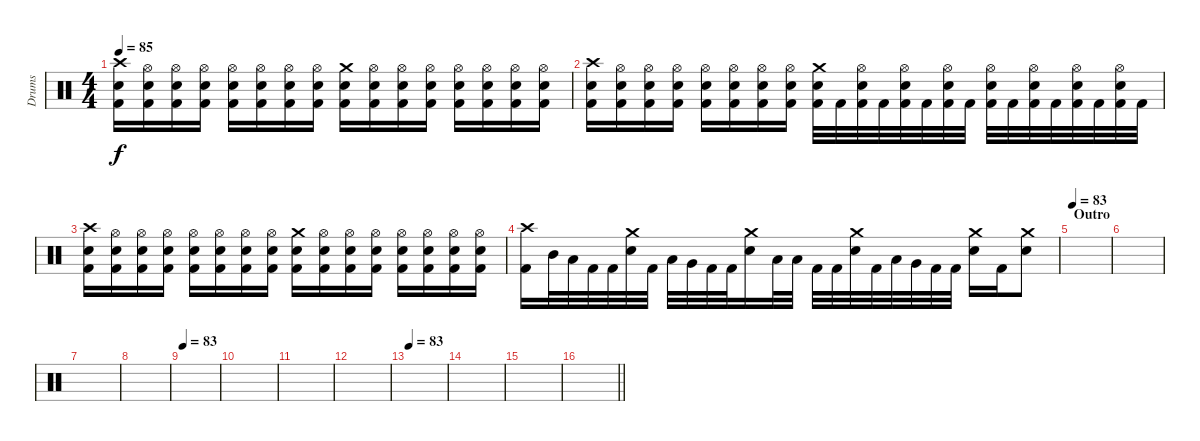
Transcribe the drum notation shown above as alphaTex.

\track ("Drums" "Drums") {instrument percussion}
\staff {score}
\articulation defaults
\ts (4 4)
\tempo 85
\clef neutral
\ks c
("Crash high (hit)" "Electric Snare (hit)" "Kick (hit) 2").16{dy f} ("Hi-Hat (open)" "Electric Snare (hit)" "Kick (hit) 2").16 ("Hi-Hat (open)" "Electric Snare (hit)" "Kick (hit) 2").16 ("Hi-Hat (open)" "Electric Snare (hit)" "Kick (hit) 2").16 ("Hi-Hat (open)" "Electric Snare (hit)" "Kick (hit) 2").16 ("Hi-Hat (open)" "Electric Snare (hit)" "Kick (hit) 2").16 ("Hi-Hat (open)" "Electric Snare (hit)" "Kick (hit) 2").16 ("Hi-Hat (open)" "Electric Snare (hit)" "Kick (hit) 2").16 ("Crash medium (hit)" "Electric Snare (hit)" "Kick (hit) 2").16 ("Hi-Hat (open)" "Electric Snare (hit)" "Kick (hit) 2").16 ("Hi-Hat (open)" "Electric Snare (hit)" "Kick (hit) 2").16 ("Hi-Hat (open)" "Electric Snare (hit)" "Kick (hit) 2").16 ("Hi-Hat (open)" "Electric Snare (hit)" "Kick (hit) 2").16 ("Hi-Hat (open)" "Electric Snare (hit)" "Kick (hit) 2").16 ("Hi-Hat (open)" "Electric Snare (hit)" "Kick (hit) 2").16 ("Hi-Hat (open)" "Electric Snare (hit)" "Kick (hit) 2").16 |
("Crash high (hit)" "Electric Snare (hit)" "Kick (hit) 2").16 ("Hi-Hat (open)" "Electric Snare (hit)" "Kick (hit) 2").16 ("Hi-Hat (open)" "Electric Snare (hit)" "Kick (hit) 2").16 ("Hi-Hat (open)" "Electric Snare (hit)" "Kick (hit) 2").16 ("Hi-Hat (open)" "Electric Snare (hit)" "Kick (hit) 2").16 ("Hi-Hat (open)" "Electric Snare (hit)" "Kick (hit) 2").16 ("Hi-Hat (open)" "Electric Snare (hit)" "Kick (hit) 2").16 ("Hi-Hat (open)" "Electric Snare (hit)" "Kick (hit) 2").16 ("Crash medium (hit)" "Electric Snare (hit)" "Kick (hit) 2").32 "Kick (hit) 2".32 ("Hi-Hat (open)" "Electric Snare (hit)" "Kick (hit) 2").32 "Kick (hit) 2".32 ("Hi-Hat (open)" "Electric Snare (hit)" "Kick (hit) 2").32 "Kick (hit) 2".32 ("Hi-Hat (open)" "Electric Snare (hit)" "Kick (hit) 2").32 "Kick (hit) 2".32 ("Hi-Hat (open)" "Electric Snare (hit)" "Kick (hit) 2").32 "Kick (hit) 2".32 ("Hi-Hat (open)" "Electric Snare (hit)" "Kick (hit) 2").32 "Kick (hit) 2".32 ("Hi-Hat (open)" "Electric Snare (hit)" "Kick (hit) 2").32 "Kick (hit) 2".32 ("Hi-Hat (open)" "Electric Snare (hit)" "Kick (hit) 2").32 "Kick (hit) 2".32 |
("Crash high (hit)" "Electric Snare (hit)" "Kick (hit) 2").16 ("Hi-Hat (open)" "Electric Snare (hit)" "Kick (hit) 2").16 ("Hi-Hat (open)" "Electric Snare (hit)" "Kick (hit) 2").16 ("Hi-Hat (open)" "Electric Snare (hit)" "Kick (hit) 2").16 ("Hi-Hat (open)" "Electric Snare (hit)" "Kick (hit) 2").16 ("Hi-Hat (open)" "Electric Snare (hit)" "Kick (hit) 2").16 ("Hi-Hat (open)" "Electric Snare (hit)" "Kick (hit) 2").16 ("Hi-Hat (open)" "Electric Snare (hit)" "Kick (hit) 2").16 ("Crash medium (hit)" "Electric Snare (hit)" "Kick (hit) 2").16 ("Hi-Hat (open)" "Electric Snare (hit)" "Kick (hit) 2").16 ("Hi-Hat (open)" "Electric Snare (hit)" "Kick (hit) 2").16 ("Hi-Hat (open)" "Electric Snare (hit)" "Kick (hit) 2").16 ("Hi-Hat (open)" "Electric Snare (hit)" "Kick (hit) 2").16 ("Hi-Hat (open)" "Electric Snare (hit)" "Kick (hit) 2").16 ("Hi-Hat (open)" "Electric Snare (hit)" "Kick (hit) 2").16 ("Hi-Hat (open)" "Electric Snare (hit)" "Kick (hit) 2").16 |
("Crash high (hit)" "Kick (hit) 2").16 "Mid Tom (hit)".32 "Low Tom (hit)".32 "Kick (hit) 2".32 "Kick (hit) 2".32 ("Crash medium (hit)" "Electric Snare (hit)").32 "Kick (hit) 2".32 "Low Tom (hit)".32 "Very Low Tom (hit)".32 "Kick (hit) 2".32 "Kick (hit) 2".32 ("Crash medium (hit)" "Electric Snare (hit)").16 "Low Tom (hit)".32 "Low Tom (hit)".32 "Kick (hit) 2".32 "Kick (hit) 2".32 ("Crash medium (hit)" "Electric Snare (hit)").32 "Kick (hit) 2".32 "Low Tom (hit)".32 "Very Low Tom (hit)".32 "Kick (hit) 2".32 "Kick (hit) 2".32 ("Crash medium (hit)" "Electric Snare (hit)").16 "Kick (hit) 2".16 ("Crash medium (hit)" "Electric Snare (hit)").8 |
\section ("" "Outro")
\tempo 83
|
|
|
|
\tempo 83
|
|
|
|
\tempo 83
|
|
|
\barLineRight lightlight
